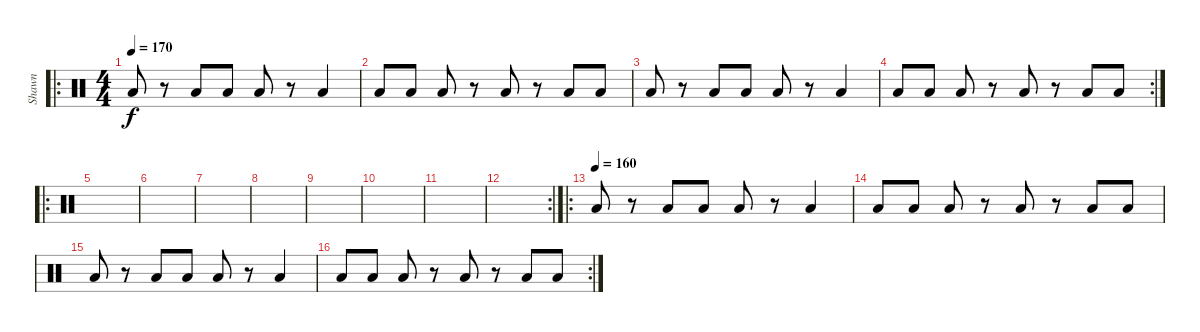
\track ("Shawn" "Shawn") {instrument percussion}
\staff {score}
\articulation defaults
\ro
\ts (4 4)
\tempo 170
\clef neutral
\ks c "Low Tom (hit)".8{dy f}
r.8 "Low Tom (hit)".8 "Low Tom (hit)".8 "Low Tom (hit)".8 r.8 "Low Tom (hit)".4 |
"Low Tom (hit)".8 "Low Tom (hit)".8 "Low Tom (hit)".8 r.8 "Low Tom (hit)".8 r.8 "Low Tom (hit)".8 "Low Tom (hit)".8 |
"Low Tom (hit)".8 r.8 "Low Tom (hit)".8 "Low Tom (hit)".8 "Low Tom (hit)".8 r.8 "Low Tom (hit)".4 |
\rc 2 "Low Tom (hit)".8 "Low Tom (hit)".8 "Low Tom (hit)".8
r.8 "Low Tom (hit)".8 r.8 "Low Tom (hit)".8 "Low Tom (hit)".8 |
\ro
|
|
|
|
|
|
|
\rc 2
|
\ro
\tempo (160)
"Low Tom (hit)".8 r.8 "Low Tom (hit)".8 "Low Tom (hit)".8 "Low Tom (hit)".8 r.8 "Low Tom (hit)".4 |
"Low Tom (hit)".8 "Low Tom (hit)".8 "Low Tom (hit)".8 r.8 "Low Tom (hit)".8 r.8 "Low Tom (hit)".8 "Low Tom (hit)".8 |
"Low Tom (hit)".8 r.8 "Low Tom (hit)".8 "Low Tom (hit)".8 "Low Tom (hit)".8 r.8 "Low Tom (hit)".4 |
\rc 2 "Low Tom (hit)".8 "Low Tom (hit)".8 "Low Tom (hit)".8
r.8 "Low Tom (hit)".8 r.8 "Low Tom (hit)".8 "Low Tom (hit)".8
